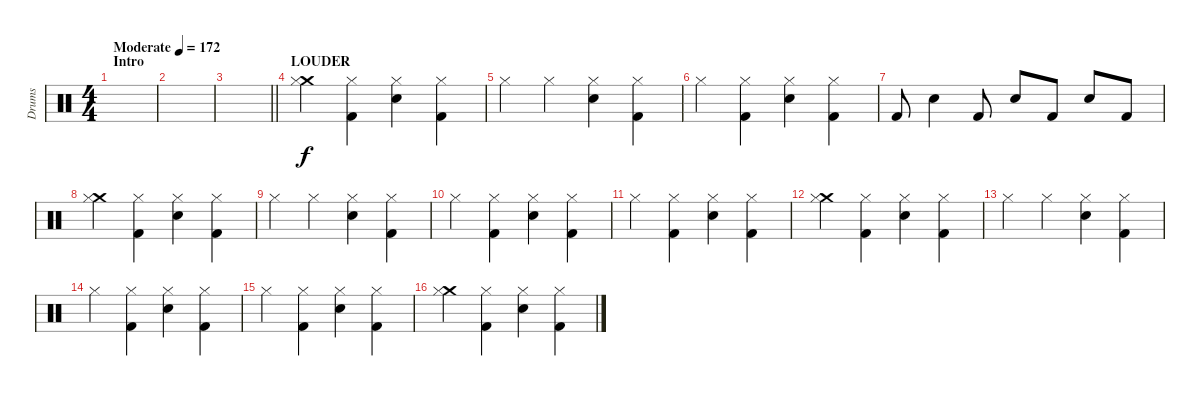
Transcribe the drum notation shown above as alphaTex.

\track ("Drums" "Drums") {instrument percussion}
\staff {score}
\articulation defaults
\ts (4 4)
\section ("" "Intro")
\tempo (172 "Moderate")
\clef neutral
\ks c
|
|
\barLineRight lightlight
|
\section ("" "LOUDER")
("Crash medium (hit)" "Hi-Hat (closed)").4 ("Hi-Hat (closed)" "Kick (hit) 2").4 ("Hi-Hat (closed)" "Electric Snare (hit)").4 ("Hi-Hat (closed)" "Kick (hit) 2").4 |
"Hi-Hat (closed)".4 "Hi-Hat (closed)".4 ("Hi-Hat (closed)" "Electric Snare (hit)").4 ("Hi-Hat (closed)" "Kick (hit) 2").4 |
"Hi-Hat (closed)".4 ("Hi-Hat (closed)" "Kick (hit) 2").4 ("Hi-Hat (closed)" "Electric Snare (hit)").4 ("Hi-Hat (closed)" "Kick (hit) 2").4 |
"Kick (hit) 2".8 "Electric Snare (hit)".4 "Kick (hit) 2".8 "Electric Snare (hit)".8 "Kick (hit) 2".8 "Electric Snare (hit)".8 "Kick (hit) 2".8 |
("Crash medium (hit)" "Hi-Hat (closed)").4 ("Hi-Hat (closed)" "Kick (hit) 2").4 ("Hi-Hat (closed)" "Electric Snare (hit)").4 ("Hi-Hat (closed)" "Kick (hit) 2").4 |
"Hi-Hat (closed)".4 "Hi-Hat (closed)".4 ("Hi-Hat (closed)" "Electric Snare (hit)").4 ("Hi-Hat (closed)" "Kick (hit) 2").4 |
"Hi-Hat (closed)".4 ("Hi-Hat (closed)" "Kick (hit) 2").4 ("Hi-Hat (closed)" "Electric Snare (hit)").4 ("Hi-Hat (closed)" "Kick (hit) 2").4 |
"Hi-Hat (closed)".4 ("Hi-Hat (closed)" "Kick (hit) 2").4 ("Hi-Hat (closed)" "Electric Snare (hit)").4 ("Hi-Hat (closed)" "Kick (hit) 2").4 |
("Crash medium (hit)" "Hi-Hat (closed)").4 ("Hi-Hat (closed)" "Kick (hit) 2").4 ("Hi-Hat (closed)" "Electric Snare (hit)").4 ("Hi-Hat (closed)" "Kick (hit) 2").4 |
"Hi-Hat (closed)".4 "Hi-Hat (closed)".4 ("Hi-Hat (closed)" "Electric Snare (hit)").4 ("Hi-Hat (closed)" "Kick (hit) 2").4 |
"Hi-Hat (closed)".4 ("Hi-Hat (closed)" "Kick (hit) 2").4 ("Hi-Hat (closed)" "Electric Snare (hit)").4 ("Hi-Hat (closed)" "Kick (hit) 2").4 |
"Hi-Hat (closed)".4 ("Hi-Hat (closed)" "Kick (hit) 2").4 ("Hi-Hat (closed)" "Electric Snare (hit)").4 ("Hi-Hat (closed)" "Kick (hit) 2").4 |
("Crash medium (hit)" "Hi-Hat (closed)").4 ("Hi-Hat (closed)" "Kick (hit) 2").4 ("Hi-Hat (closed)" "Electric Snare (hit)").4 ("Hi-Hat (closed)" "Kick (hit) 2").4
